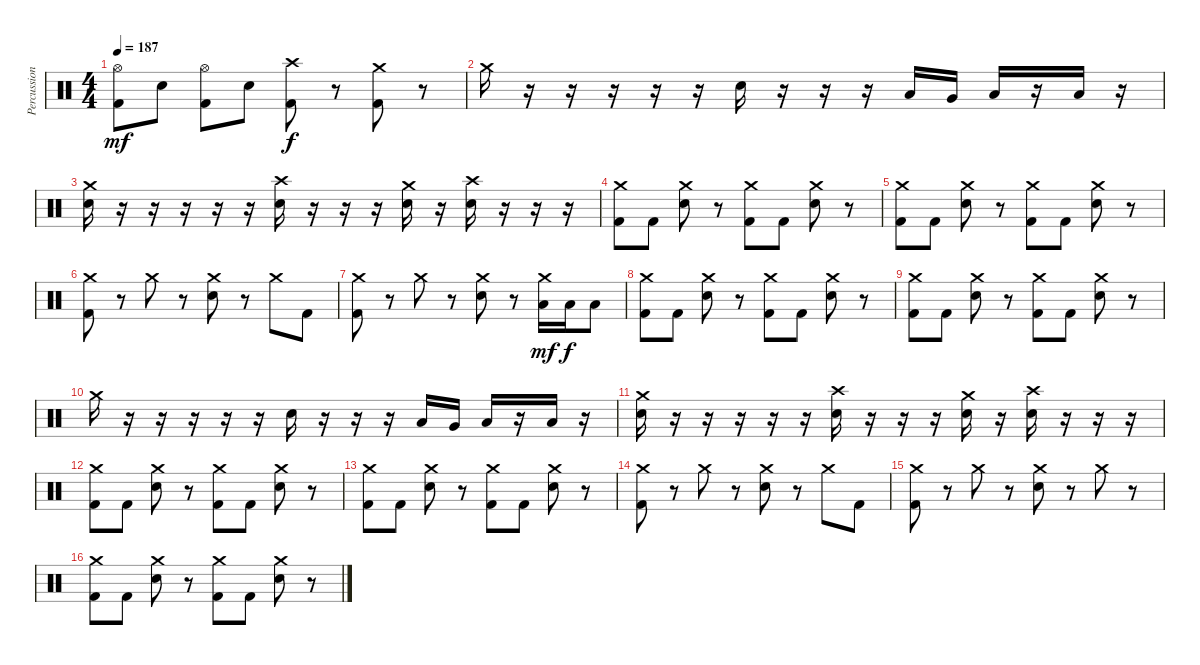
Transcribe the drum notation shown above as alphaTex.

\track ("Percussion" "Percussion") {instrument percussion}
\staff {score}
\articulation defaults
\ts (4 4)
\tempo 187
\clef neutral
\ks c
("Hi-Hat (open)" "Kick (hit) 2").8{dy mf} "Electric Snare (hit)".8 ("Hi-Hat (open)" "Kick (hit) 2").8 "Electric Snare (hit)".8 ("Crash high (hit)" "Kick (hit) 2").8{dy f} r.8 ("Crash medium (hit)" "Kick (hit) 2").8 r.8 |
"Crash medium (hit)".16 r.16 r.16 r.16 r.16 r.16 "Electric Snare (hit)".16 r.16 r.16 r.16 "Low Tom (hit)".16 "Very Low Tom (hit)".16 "Low Floor Tom (hit)".16 r.16 "Low Floor Tom (hit)".16 r.16 |
("Crash medium (hit)" "Electric Snare (hit)").16 r.16 r.16 r.16 r.16 r.16 ("Crash high (hit)" "Electric Snare (hit)").16 r.16 r.16 r.16 ("Crash medium (hit)" "Electric Snare (hit)").16 r.16 ("Crash high (hit)" "Electric Snare (hit)").16 r.16 r.16 r.16 |
("Crash medium (hit)" "Kick (hit) 2").8 "Kick (hit) 2".8 ("Crash medium (hit)" "Electric Snare (hit)").8 r.8 ("Crash medium (hit)" "Kick (hit) 2").8 "Kick (hit) 2".8 ("Crash medium (hit)" "Electric Snare (hit)").8 r.8 |
("Crash medium (hit)" "Kick (hit) 2").8 "Kick (hit) 2".8 ("Crash medium (hit)" "Electric Snare (hit)").8 r.8 ("Crash medium (hit)" "Kick (hit) 2").8 "Kick (hit) 2".8 ("Crash medium (hit)" "Electric Snare (hit)").8 r.8 |
("Crash medium (hit)" "Kick (hit) 2").8 r.8 "Crash medium (hit)".8 r.8 ("Crash medium (hit)" "Electric Snare (hit)").8 r.8 "Crash medium (hit)".8 "Kick (hit) 2".8 |
("Crash medium (hit)" "Kick (hit) 2").8 r.8 "Crash medium (hit)".8 r.8 ("Crash medium (hit)" "Electric Snare (hit)").8 r.8 ("Crash medium (hit)" "Low Floor Tom (hit)").16{dy mf} "Low Floor Tom (hit)".16{dy f} "Low Floor Tom (hit)".8 |
("Crash medium (hit)" "Kick (hit) 2").8 "Kick (hit) 2".8 ("Crash medium (hit)" "Electric Snare (hit)").8 r.8 ("Crash medium (hit)" "Kick (hit) 2").8 "Kick (hit) 2".8 ("Crash medium (hit)" "Electric Snare (hit)").8 r.8 |
("Crash medium (hit)" "Kick (hit) 2").8 "Kick (hit) 2".8 ("Crash medium (hit)" "Electric Snare (hit)").8 r.8 ("Crash medium (hit)" "Kick (hit) 2").8 "Kick (hit) 2".8 ("Crash medium (hit)" "Electric Snare (hit)").8 r.8 |
"Crash medium (hit)".16 r.16 r.16 r.16 r.16 r.16 "Electric Snare (hit)".16 r.16 r.16 r.16 "Low Tom (hit)".16 "Very Low Tom (hit)".16 "Low Floor Tom (hit)".16 r.16 "Low Floor Tom (hit)".16 r.16 |
("Crash medium (hit)" "Electric Snare (hit)").16 r.16 r.16 r.16 r.16 r.16 ("Crash high (hit)" "Electric Snare (hit)").16 r.16 r.16 r.16 ("Crash medium (hit)" "Electric Snare (hit)").16 r.16 ("Crash high (hit)" "Electric Snare (hit)").16 r.16 r.16 r.16 |
("Crash medium (hit)" "Kick (hit) 2").8 "Kick (hit) 2".8 ("Crash medium (hit)" "Electric Snare (hit)").8 r.8 ("Crash medium (hit)" "Kick (hit) 2").8 "Kick (hit) 2".8 ("Crash medium (hit)" "Electric Snare (hit)").8 r.8 |
("Crash medium (hit)" "Kick (hit) 2").8 "Kick (hit) 2".8 ("Crash medium (hit)" "Electric Snare (hit)").8 r.8 ("Crash medium (hit)" "Kick (hit) 2").8 "Kick (hit) 2".8 ("Crash medium (hit)" "Electric Snare (hit)").8 r.8 |
("Crash medium (hit)" "Kick (hit) 2").8 r.8 "Crash medium (hit)".8 r.8 ("Crash medium (hit)" "Electric Snare (hit)").8 r.8 "Crash medium (hit)".8 "Kick (hit) 2".8 |
("Crash medium (hit)" "Kick (hit) 2").8 r.8 "Crash medium (hit)".8 r.8 ("Crash medium (hit)" "Electric Snare (hit)").8 r.8 "Crash medium (hit)".8 r.8 |
("Crash medium (hit)" "Kick (hit) 2").8 "Kick (hit) 2".8 ("Crash medium (hit)" "Electric Snare (hit)").8 r.8 ("Crash medium (hit)" "Kick (hit) 2").8 "Kick (hit) 2".8 ("Crash medium (hit)" "Electric Snare (hit)").8 r.8
